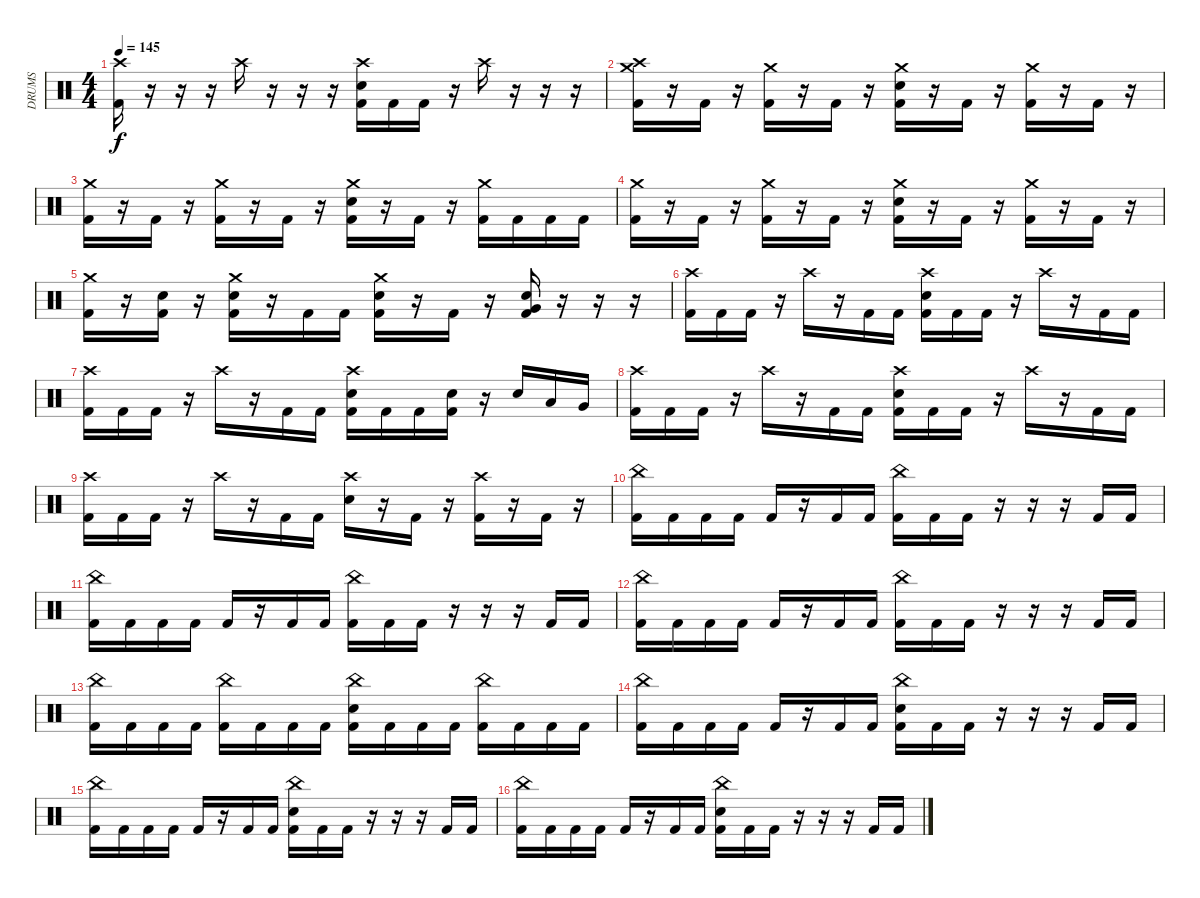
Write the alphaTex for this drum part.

\track ("DRUMS" "DRUMS") {instrument percussion}
\staff {score}
\articulation defaults
\ts (4 4)
\tempo 145
\clef neutral
\ks c
("Crash high (hit)" "Kick (hit) 2").16{dy f} r.16 r.16 r.16 "Crash high (hit)".16 r.16 r.16 r.16 ("Crash high (hit)" "Electric Snare (hit)" "Kick (hit) 2").16 "Kick (hit) 2".16 "Kick (hit) 2".16 r.16 "Crash high (hit)".16 r.16 r.16 r.16 |
("Crash medium (hit)" "Crash high (hit)" "Kick (hit) 2").16 r.16 "Kick (hit) 2".16 r.16 ("Crash medium (hit)" "Kick (hit) 2").16 r.16 "Kick (hit) 2".16 r.16 ("Crash medium (hit)" "Electric Snare (hit)" "Kick (hit) 2").16 r.16 "Kick (hit) 2".16 r.16 ("Crash medium (hit)" "Kick (hit) 2").16 r.16 "Kick (hit) 2".16 r.16 |
("Crash medium (hit)" "Kick (hit) 2").16 r.16 "Kick (hit) 2".16 r.16 ("Crash medium (hit)" "Kick (hit) 2").16 r.16 "Kick (hit) 2".16 r.16 ("Crash medium (hit)" "Electric Snare (hit)" "Kick (hit) 2").16 r.16 "Kick (hit) 2".16 r.16 ("Crash medium (hit)" "Kick (hit) 2").16 "Kick (hit) 2".16 "Kick (hit) 2".16 "Kick (hit) 2".16 |
("Crash medium (hit)" "Kick (hit) 2").16 r.16 "Kick (hit) 2".16 r.16 ("Crash medium (hit)" "Kick (hit) 2").16 r.16 "Kick (hit) 2".16 r.16 ("Crash medium (hit)" "Electric Snare (hit)" "Kick (hit) 2").16 r.16 "Kick (hit) 2".16 r.16 ("Crash medium (hit)" "Kick (hit) 2").16 r.16 "Kick (hit) 2".16 r.16 |
("Crash medium (hit)" "Kick (hit) 2").16 r.16 ("Electric Snare (hit)" "Kick (hit) 2").16 r.16 ("Crash medium (hit)" "Electric Snare (hit)" "Kick (hit) 2").16 r.16 "Kick (hit) 2".16 "Kick (hit) 2".16 ("Crash medium (hit)" "Electric Snare (hit)" "Kick (hit) 2").16 r.16 "Kick (hit) 2".16 r.16 ("Very Low Tom (hit)" "Electric Snare (hit)" "Kick (hit) 2").16 r.16 r.16 r.16 |
("Crash high (hit)" "Kick (hit) 2").16 "Kick (hit) 2".16 "Kick (hit) 2".16 r.16 "Crash high (hit)".16 r.16 "Kick (hit) 2".16 "Kick (hit) 2".16 ("Crash high (hit)" "Electric Snare (hit)" "Kick (hit) 2").16 "Kick (hit) 2".16 "Kick (hit) 2".16 r.16 "Crash high (hit)".16 r.16 "Kick (hit) 2".16 "Kick (hit) 2".16 |
("Crash high (hit)" "Kick (hit) 2").16 "Kick (hit) 2".16 "Kick (hit) 2".16 r.16 "Crash high (hit)".16 r.16 "Kick (hit) 2".16 "Kick (hit) 2".16 ("Crash high (hit)" "Electric Snare (hit)" "Kick (hit) 2").16 "Kick (hit) 2".16 "Kick (hit) 2".16 ("Electric Snare (hit)" "Kick (hit) 2").16 r.16 "Electric Snare (hit)".16 "Low Tom (hit)".16 "Very Low Tom (hit)".16 |
("Crash high (hit)" "Kick (hit) 2").16 "Kick (hit) 2".16 "Kick (hit) 2".16 r.16 "Crash high (hit)".16 r.16 "Kick (hit) 2".16 "Kick (hit) 2".16 ("Crash high (hit)" "Electric Snare (hit)" "Kick (hit) 2").16 "Kick (hit) 2".16 "Kick (hit) 2".16 r.16 "Crash high (hit)".16 r.16 "Kick (hit) 2".16 "Kick (hit) 2".16 |
("Crash high (hit)" "Kick (hit) 2").16 "Kick (hit) 2".16 "Kick (hit) 2".16 r.16 "Crash high (hit)".16 r.16 "Kick (hit) 2".16 "Kick (hit) 2".16 ("Crash high (hit)" "Electric Snare (hit)").16 r.16 "Kick (hit) 2".16 r.16 ("Crash high (hit)" "Kick (hit) 2").16 r.16 "Kick (hit) 2".16 r.16 |
("China (hit)" "Kick (hit) 2").16 "Kick (hit) 2".16 "Kick (hit) 2".16 "Kick (hit) 2".16 "Kick (hit) 2".16 r.16 "Kick (hit) 2".16 "Kick (hit) 2".16 ("China (hit)" "Kick (hit) 2").16 "Kick (hit) 2".16 "Kick (hit) 2".16 r.16 r.16 r.16 "Kick (hit) 2".16 "Kick (hit) 2".16 |
("China (hit)" "Kick (hit) 2").16 "Kick (hit) 2".16 "Kick (hit) 2".16 "Kick (hit) 2".16 "Kick (hit) 2".16 r.16 "Kick (hit) 2".16 "Kick (hit) 2".16 ("China (hit)" "Kick (hit) 2").16 "Kick (hit) 2".16 "Kick (hit) 2".16 r.16 r.16 r.16 "Kick (hit) 2".16 "Kick (hit) 2".16 |
("China (hit)" "Kick (hit) 2").16 "Kick (hit) 2".16 "Kick (hit) 2".16 "Kick (hit) 2".16 "Kick (hit) 2".16 r.16 "Kick (hit) 2".16 "Kick (hit) 2".16 ("China (hit)" "Kick (hit) 2").16 "Kick (hit) 2".16 "Kick (hit) 2".16 r.16 r.16 r.16 "Kick (hit) 2".16 "Kick (hit) 2".16 |
("China (hit)" "Kick (hit) 2").16 "Kick (hit) 2".16 "Kick (hit) 2".16 "Kick (hit) 2".16 ("China (hit)" "Kick (hit) 2").16 "Kick (hit) 2".16 "Kick (hit) 2".16 "Kick (hit) 2".16 ("China (hit)" "Electric Snare (hit)" "Kick (hit) 2").16 "Kick (hit) 2".16 "Kick (hit) 2".16 "Kick (hit) 2".16 ("China (hit)" "Kick (hit) 2").16 "Kick (hit) 2".16 "Kick (hit) 2".16 "Kick (hit) 2".16 |
("China (hit)" "Kick (hit) 2").16 "Kick (hit) 2".16 "Kick (hit) 2".16 "Kick (hit) 2".16 "Kick (hit) 2".16 r.16 "Kick (hit) 2".16 "Kick (hit) 2".16 ("China (hit)" "Electric Snare (hit)" "Kick (hit) 2").16 "Kick (hit) 2".16 "Kick (hit) 2".16 r.16 r.16 r.16 "Kick (hit) 2".16 "Kick (hit) 2".16 |
("China (hit)" "Kick (hit) 2").16 "Kick (hit) 2".16 "Kick (hit) 2".16 "Kick (hit) 2".16 "Kick (hit) 2".16 r.16 "Kick (hit) 2".16 "Kick (hit) 2".16 ("China (hit)" "Electric Snare (hit)" "Kick (hit) 2").16 "Kick (hit) 2".16 "Kick (hit) 2".16 r.16 r.16 r.16 "Kick (hit) 2".16 "Kick (hit) 2".16 |
("China (hit)" "Kick (hit) 2").16 "Kick (hit) 2".16 "Kick (hit) 2".16 "Kick (hit) 2".16 "Kick (hit) 2".16 r.16 "Kick (hit) 2".16 "Kick (hit) 2".16 ("China (hit)" "Electric Snare (hit)" "Kick (hit) 2").16 "Kick (hit) 2".16 "Kick (hit) 2".16 r.16 r.16 r.16 "Kick (hit) 2".16 "Kick (hit) 2".16
